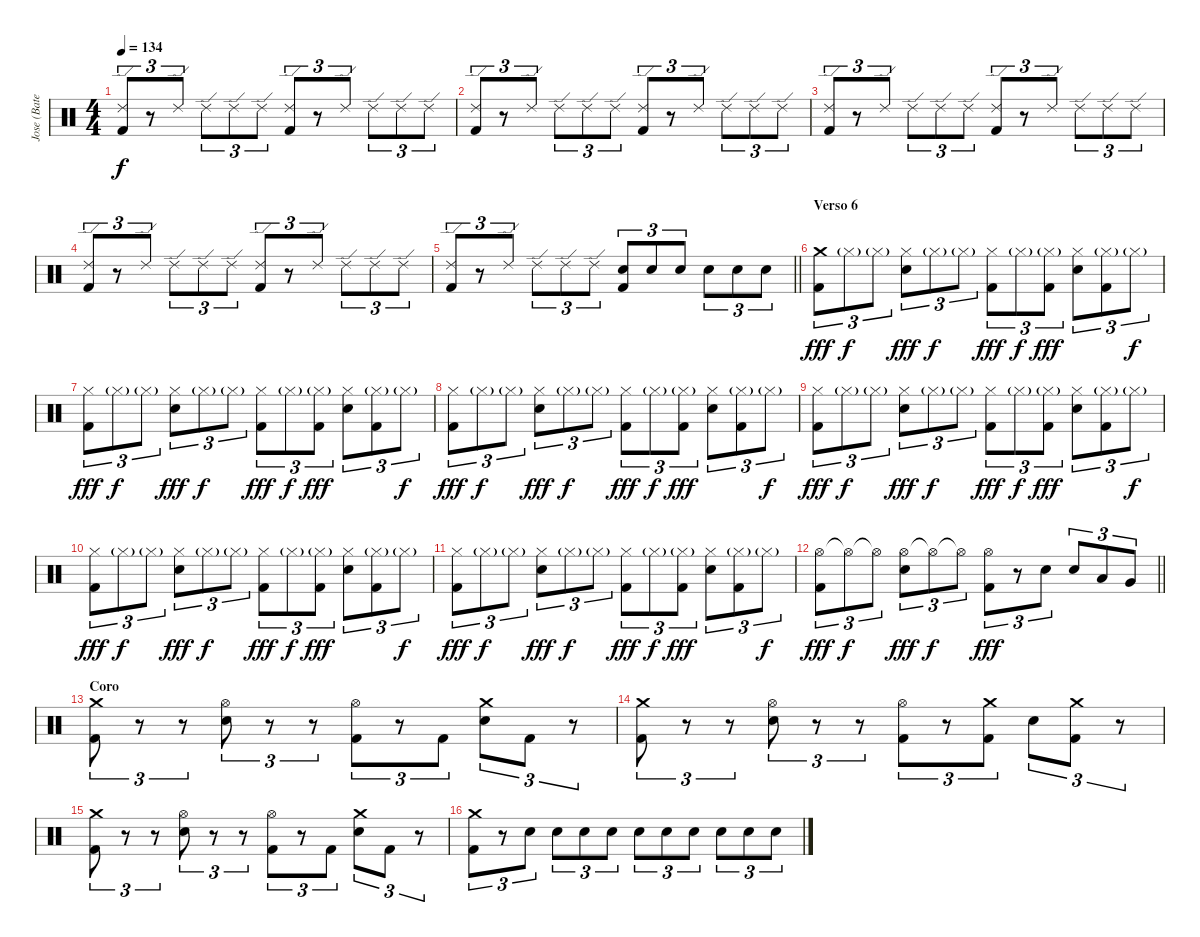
\track ("Jose (Bateria)" "Jose (Bate") {instrument percussion}
\staff {score}
\articulation defaults
\ts (4 4)
\tempo 134
\clef neutral
\ks c
("Ride (edge) 2" "Kick (hit) 2").8{tu (3 2) dy f} r.8{tu (3 2)} "Ride (edge) 2".8{tu (3 2)} "Ride (edge) 2".8{tu (3 2)} "Ride (edge) 2".8{tu (3 2)} "Ride (edge) 2".8{tu (3 2)} ("Ride (edge) 2" "Kick (hit) 2").8{tu (3 2)} r.8{tu (3 2)} "Ride (edge) 2".8{tu (3 2)} "Ride (edge) 2".8{tu (3 2)} "Ride (edge) 2".8{tu (3 2)} "Ride (edge) 2".8{tu (3 2)} |
("Ride (edge) 2" "Kick (hit) 2").8{tu (3 2)} r.8{tu (3 2)} "Ride (edge) 2".8{tu (3 2)} "Ride (edge) 2".8{tu (3 2)} "Ride (edge) 2".8{tu (3 2)} "Ride (edge) 2".8{tu (3 2)} ("Ride (edge) 2" "Kick (hit) 2").8{tu (3 2)} r.8{tu (3 2)} "Ride (edge) 2".8{tu (3 2)} "Ride (edge) 2".8{tu (3 2)} "Ride (edge) 2".8{tu (3 2)} "Ride (edge) 2".8{tu (3 2)} |
("Ride (edge) 2" "Kick (hit) 2").8{tu (3 2)} r.8{tu (3 2)} "Ride (edge) 2".8{tu (3 2)} "Ride (edge) 2".8{tu (3 2)} "Ride (edge) 2".8{tu (3 2)} "Ride (edge) 2".8{tu (3 2)} ("Ride (edge) 2" "Kick (hit) 2").8{tu (3 2)} r.8{tu (3 2)} "Ride (edge) 2".8{tu (3 2)} "Ride (edge) 2".8{tu (3 2)} "Ride (edge) 2".8{tu (3 2)} "Ride (edge) 2".8{tu (3 2)} |
("Ride (edge) 2" "Kick (hit) 2").8{tu (3 2)} r.8{tu (3 2)} "Ride (edge) 2".8{tu (3 2)} "Ride (edge) 2".8{tu (3 2)} "Ride (edge) 2".8{tu (3 2)} "Ride (edge) 2".8{tu (3 2)} ("Ride (edge) 2" "Kick (hit) 2").8{tu (3 2)} r.8{tu (3 2)} "Ride (edge) 2".8{tu (3 2)} "Ride (edge) 2".8{tu (3 2)} "Ride (edge) 2".8{tu (3 2)} "Ride (edge) 2".8{tu (3 2)} |
\barLineRight lightlight
("Ride (edge) 2" "Kick (hit) 2").8{tu (3 2)} r.8{tu (3 2)} "Ride (edge) 2".8{tu (3 2)} "Ride (edge) 2".8{tu (3 2)} "Ride (edge) 2".8{tu (3 2)} "Ride (edge) 2".8{tu (3 2)} ("Snare (hit) 2" "Kick (hit) 2").8{tu (3 2)} "Snare (hit) 2".8{tu (3 2)} "Snare (hit) 2".8{tu (3 2)} "Snare (hit) 2".8{tu (3 2)} "Snare (hit) 2".8{tu (3 2)} "Snare (hit) 2".8{tu (3 2)} |
\section ("" "Verso 6")
("Crash medium (hit)" "Kick (hit) 2").8{tu (3 2) dy fff} "Hi-Hat (closed)"{g}.8{tu (3 2) dy f} "Hi-Hat (closed)"{g}.8{tu (3 2)} ("Hi-Hat (closed)" "Snare (hit) 2").8{tu (3 2) dy fff} "Hi-Hat (closed)"{g}.8{tu (3 2) dy f} "Hi-Hat (closed)"{g}.8{tu (3 2)} ("Hi-Hat (closed)" "Kick (hit) 2").8{tu (3 2) dy fff} "Hi-Hat (closed)"{g}.8{tu (3 2) dy f} ("Hi-Hat (closed)"{g} "Kick (hit) 2").8{tu (3 2) dy fff} ("Hi-Hat (closed)" "Snare (hit) 2").8{tu (3 2)} ("Hi-Hat (closed)"{g} "Kick (hit) 2").8{tu (3 2)} "Hi-Hat (closed)"{g}.8{tu (3 2) dy f} |
("Hi-Hat (closed)" "Kick (hit) 2").8{tu (3 2) dy fff} "Hi-Hat (closed)"{g}.8{tu (3 2) dy f} "Hi-Hat (closed)"{g}.8{tu (3 2)} ("Hi-Hat (closed)" "Snare (hit) 2").8{tu (3 2) dy fff} "Hi-Hat (closed)"{g}.8{tu (3 2) dy f} "Hi-Hat (closed)"{g}.8{tu (3 2)} ("Hi-Hat (closed)" "Kick (hit) 2").8{tu (3 2) dy fff} "Hi-Hat (closed)"{g}.8{tu (3 2) dy f} ("Hi-Hat (closed)"{g} "Kick (hit) 2").8{tu (3 2) dy fff} ("Hi-Hat (closed)" "Snare (hit) 2").8{tu (3 2)} ("Hi-Hat (closed)"{g} "Kick (hit) 2").8{tu (3 2)} "Hi-Hat (closed)"{g}.8{tu (3 2) dy f} |
("Hi-Hat (closed)" "Kick (hit) 2").8{tu (3 2) dy fff} "Hi-Hat (closed)"{g}.8{tu (3 2) dy f} "Hi-Hat (closed)"{g}.8{tu (3 2)} ("Hi-Hat (closed)" "Snare (hit) 2").8{tu (3 2) dy fff} "Hi-Hat (closed)"{g}.8{tu (3 2) dy f} "Hi-Hat (closed)"{g}.8{tu (3 2)} ("Hi-Hat (closed)" "Kick (hit) 2").8{tu (3 2) dy fff} "Hi-Hat (closed)"{g}.8{tu (3 2) dy f} ("Hi-Hat (closed)"{g} "Kick (hit) 2").8{tu (3 2) dy fff} ("Hi-Hat (closed)" "Snare (hit) 2").8{tu (3 2)} ("Hi-Hat (closed)"{g} "Kick (hit) 2").8{tu (3 2)} "Hi-Hat (closed)"{g}.8{tu (3 2) dy f} |
("Hi-Hat (closed)" "Kick (hit) 2").8{tu (3 2) dy fff} "Hi-Hat (closed)"{g}.8{tu (3 2) dy f} "Hi-Hat (closed)"{g}.8{tu (3 2)} ("Hi-Hat (closed)" "Snare (hit) 2").8{tu (3 2) dy fff} "Hi-Hat (closed)"{g}.8{tu (3 2) dy f} "Hi-Hat (closed)"{g}.8{tu (3 2)} ("Hi-Hat (closed)" "Kick (hit) 2").8{tu (3 2) dy fff} "Hi-Hat (closed)"{g}.8{tu (3 2) dy f} ("Hi-Hat (closed)"{g} "Kick (hit) 2").8{tu (3 2) dy fff} ("Hi-Hat (closed)" "Snare (hit) 2").8{tu (3 2)} ("Hi-Hat (closed)"{g} "Kick (hit) 2").8{tu (3 2)} "Hi-Hat (closed)"{g}.8{tu (3 2) dy f} |
("Hi-Hat (closed)" "Kick (hit) 2").8{tu (3 2) dy fff} "Hi-Hat (closed)"{g}.8{tu (3 2) dy f} "Hi-Hat (closed)"{g}.8{tu (3 2)} ("Hi-Hat (closed)" "Snare (hit) 2").8{tu (3 2) dy fff} "Hi-Hat (closed)"{g}.8{tu (3 2) dy f} "Hi-Hat (closed)"{g}.8{tu (3 2)} ("Hi-Hat (closed)" "Kick (hit) 2").8{tu (3 2) dy fff} "Hi-Hat (closed)"{g}.8{tu (3 2) dy f} ("Hi-Hat (closed)"{g} "Kick (hit) 2").8{tu (3 2) dy fff} ("Hi-Hat (closed)" "Snare (hit) 2").8{tu (3 2)} ("Hi-Hat (closed)"{g} "Kick (hit) 2").8{tu (3 2)} "Hi-Hat (closed)"{g}.8{tu (3 2) dy f} |
("Hi-Hat (closed)" "Kick (hit) 2").8{tu (3 2) dy fff} "Hi-Hat (closed)"{g}.8{tu (3 2) dy f} "Hi-Hat (closed)"{g}.8{tu (3 2)} ("Hi-Hat (closed)" "Snare (hit) 2").8{tu (3 2) dy fff} "Hi-Hat (closed)"{g}.8{tu (3 2) dy f} "Hi-Hat (closed)"{g}.8{tu (3 2)} ("Hi-Hat (closed)" "Kick (hit) 2").8{tu (3 2) dy fff} "Hi-Hat (closed)"{g}.8{tu (3 2) dy f} ("Hi-Hat (closed)"{g} "Kick (hit) 2").8{tu (3 2) dy fff} ("Hi-Hat (closed)" "Snare (hit) 2").8{tu (3 2)} ("Hi-Hat (closed)"{g} "Kick (hit) 2").8{tu (3 2)} "Hi-Hat (closed)"{g}.8{tu (3 2) dy f} |
\barLineRight lightlight
("Hi-Hat (open)" "Kick (hit) 2").8{tu (3 2) dy fff} "Hi-Hat (open)"{t}.8{tu (3 2) dy f} "Hi-Hat (open)"{t}.8{tu (3 2)} ("Hi-Hat (open)" "Snare (hit) 2").8{tu (3 2) dy fff} "Hi-Hat (open)"{t}.8{tu (3 2) dy f} "Hi-Hat (open)"{t}.8{tu (3 2)} ("Hi-Hat (open)" "Kick (hit) 2").8{tu (3 2) dy fff} r.8{tu (3 2)} "Snare (hit) 2".8{tu (3 2)} "Snare (hit) 2".8{tu (3 2)} "Low Tom (hit)".8{tu (3 2)} "Very Low Tom (hit)".8{tu (3 2)} |
\section ("" "Coro")
("Crash medium (hit)" "Kick (hit) 2").8{tu (3 2)} r.8{tu (3 2)} r.8{tu (3 2)} ("Hi-Hat (open)" "Snare (hit) 2").8{tu (3 2)} r.8{tu (3 2)} r.8{tu (3 2)} ("Hi-Hat (open)" "Kick (hit) 2").8{tu (3 2)} r.8{tu (3 2)} "Kick (hit) 2".8{tu (3 2)} ("Crash medium (hit)" "Snare (hit) 2").8{tu (3 2)} "Kick (hit) 2".8{tu (3 2)} r.8{tu (3 2)} |
("Crash medium (hit)" "Kick (hit) 2").8{tu (3 2)} r.8{tu (3 2)} r.8{tu (3 2)} ("Hi-Hat (open)" "Snare (hit) 2").8{tu (3 2)} r.8{tu (3 2)} r.8{tu (3 2)} ("Hi-Hat (open)" "Kick (hit) 2").8{tu (3 2)} r.8{tu (3 2)} ("Crash medium (hit)" "Kick (hit) 2").8{tu (3 2)} "Snare (hit) 2".8{tu (3 2)} ("Crash medium (hit)" "Kick (hit) 2").8{tu (3 2)} r.8{tu (3 2)} |
("Crash medium (hit)" "Kick (hit) 2").8{tu (3 2)} r.8{tu (3 2)} r.8{tu (3 2)} ("Hi-Hat (open)" "Snare (hit) 2").8{tu (3 2)} r.8{tu (3 2)} r.8{tu (3 2)} ("Hi-Hat (open)" "Kick (hit) 2").8{tu (3 2)} r.8{tu (3 2)} "Kick (hit) 2".8{tu (3 2)} ("Crash medium (hit)" "Snare (hit) 2").8{tu (3 2)} "Kick (hit) 2".8{tu (3 2)} r.8{tu (3 2)} |
("Crash medium (hit)" "Kick (hit) 2").8{tu (3 2)} r.8{tu (3 2)} "Snare (hit) 2".8{tu (3 2)} "Snare (hit) 2".8{tu (3 2)} "Snare (hit) 2".8{tu (3 2)} "Snare (hit) 2".8{tu (3 2)} "Snare (hit) 2".8{tu (3 2)} "Snare (hit) 2".8{tu (3 2)} "Snare (hit) 2".8{tu (3 2)} "Snare (hit) 2".8{tu (3 2)} "Snare (hit) 2".8{tu (3 2)} "Snare (hit) 2".8{tu (3 2)}
